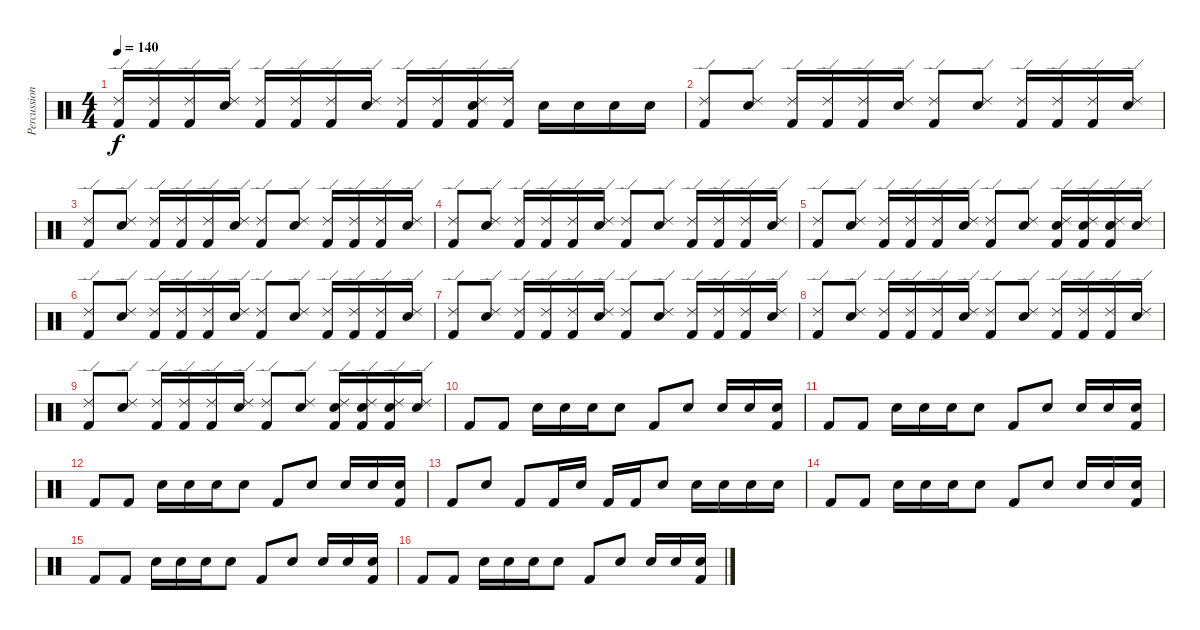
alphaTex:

\track ("Percussion" "Percussion") {instrument percussion}
\staff {score}
\articulation defaults
\ts (4 4)
\tempo 140
\clef neutral
\ks c
("Kick (hit) 2" "Ride (edge) 2").16{dy f} ("Kick (hit) 2" "Ride (edge) 2").16 ("Kick (hit) 2" "Ride (edge) 2").16 ("Electric Snare (hit)" "Ride (edge) 2").16 ("Kick (hit) 2" "Ride (edge) 2").16 ("Kick (hit) 2" "Ride (edge) 2").16 ("Kick (hit) 2" "Ride (edge) 2").16 ("Electric Snare (hit)" "Ride (edge) 2").16 ("Kick (hit) 2" "Ride (edge) 2").16 ("Kick (hit) 2" "Ride (edge) 2").16 ("Kick (hit) 2" "Electric Snare (hit)" "Ride (edge) 2").16 ("Kick (hit) 2" "Ride (edge) 2").16 "Electric Snare (hit)".16 "Electric Snare (hit)".16 "Electric Snare (hit)".16 "Electric Snare (hit)".16 |
("Kick (hit) 2" "Ride (edge) 2").8 ("Electric Snare (hit)" "Ride (edge) 2").8 ("Kick (hit) 2" "Ride (edge) 2").16 ("Kick (hit) 2" "Ride (edge) 2").16 ("Kick (hit) 2" "Ride (edge) 2").16 ("Electric Snare (hit)" "Ride (edge) 2").16 ("Kick (hit) 2" "Ride (edge) 2").8 ("Electric Snare (hit)" "Ride (edge) 2").8 ("Kick (hit) 2" "Ride (edge) 2").16 ("Kick (hit) 2" "Ride (edge) 2").16 ("Kick (hit) 2" "Ride (edge) 2").16 ("Electric Snare (hit)" "Ride (edge) 2").16 |
("Kick (hit) 2" "Ride (edge) 2").8 ("Electric Snare (hit)" "Ride (edge) 2").8 ("Kick (hit) 2" "Ride (edge) 2").16 ("Kick (hit) 2" "Ride (edge) 2").16 ("Kick (hit) 2" "Ride (edge) 2").16 ("Electric Snare (hit)" "Ride (edge) 2").16 ("Kick (hit) 2" "Ride (edge) 2").8 ("Electric Snare (hit)" "Ride (edge) 2").8 ("Kick (hit) 2" "Ride (edge) 2").16 ("Kick (hit) 2" "Ride (edge) 2").16 ("Kick (hit) 2" "Ride (edge) 2").16 ("Electric Snare (hit)" "Ride (edge) 2").16 |
("Kick (hit) 2" "Ride (edge) 2").8 ("Electric Snare (hit)" "Ride (edge) 2").8 ("Kick (hit) 2" "Ride (edge) 2").16 ("Kick (hit) 2" "Ride (edge) 2").16 ("Kick (hit) 2" "Ride (edge) 2").16 ("Electric Snare (hit)" "Ride (edge) 2").16 ("Kick (hit) 2" "Ride (edge) 2").8 ("Electric Snare (hit)" "Ride (edge) 2").8 ("Kick (hit) 2" "Ride (edge) 2").16 ("Kick (hit) 2" "Ride (edge) 2").16 ("Kick (hit) 2" "Ride (edge) 2").16 ("Electric Snare (hit)" "Ride (edge) 2").16 |
("Kick (hit) 2" "Ride (edge) 2").8 ("Electric Snare (hit)" "Ride (edge) 2").8 ("Kick (hit) 2" "Ride (edge) 2").16 ("Kick (hit) 2" "Ride (edge) 2").16 ("Kick (hit) 2" "Ride (edge) 2").16 ("Electric Snare (hit)" "Ride (edge) 2").16 ("Kick (hit) 2" "Ride (edge) 2").8 ("Electric Snare (hit)" "Ride (edge) 2").8 ("Kick (hit) 2" "Electric Snare (hit)" "Ride (edge) 2").16 ("Kick (hit) 2" "Electric Snare (hit)" "Ride (edge) 2").16 ("Kick (hit) 2" "Electric Snare (hit)" "Ride (edge) 2").16 ("Electric Snare (hit)" "Ride (edge) 2").16 |
("Kick (hit) 2" "Ride (edge) 2").8 ("Electric Snare (hit)" "Ride (edge) 2").8 ("Kick (hit) 2" "Ride (edge) 2").16 ("Kick (hit) 2" "Ride (edge) 2").16 ("Kick (hit) 2" "Ride (edge) 2").16 ("Electric Snare (hit)" "Ride (edge) 2").16 ("Kick (hit) 2" "Ride (edge) 2").8 ("Electric Snare (hit)" "Ride (edge) 2").8 ("Kick (hit) 2" "Ride (edge) 2").16 ("Kick (hit) 2" "Ride (edge) 2").16 ("Kick (hit) 2" "Ride (edge) 2").16 ("Electric Snare (hit)" "Ride (edge) 2").16 |
("Kick (hit) 2" "Ride (edge) 2").8 ("Electric Snare (hit)" "Ride (edge) 2").8 ("Kick (hit) 2" "Ride (edge) 2").16 ("Kick (hit) 2" "Ride (edge) 2").16 ("Kick (hit) 2" "Ride (edge) 2").16 ("Electric Snare (hit)" "Ride (edge) 2").16 ("Kick (hit) 2" "Ride (edge) 2").8 ("Electric Snare (hit)" "Ride (edge) 2").8 ("Kick (hit) 2" "Ride (edge) 2").16 ("Kick (hit) 2" "Ride (edge) 2").16 ("Kick (hit) 2" "Ride (edge) 2").16 ("Electric Snare (hit)" "Ride (edge) 2").16 |
("Kick (hit) 2" "Ride (edge) 2").8 ("Electric Snare (hit)" "Ride (edge) 2").8 ("Kick (hit) 2" "Ride (edge) 2").16 ("Kick (hit) 2" "Ride (edge) 2").16 ("Kick (hit) 2" "Ride (edge) 2").16 ("Electric Snare (hit)" "Ride (edge) 2").16 ("Kick (hit) 2" "Ride (edge) 2").8 ("Electric Snare (hit)" "Ride (edge) 2").8 ("Kick (hit) 2" "Ride (edge) 2").16 ("Kick (hit) 2" "Ride (edge) 2").16 ("Kick (hit) 2" "Ride (edge) 2").16 ("Electric Snare (hit)" "Ride (edge) 2").16 |
("Kick (hit) 2" "Ride (edge) 2").8 ("Electric Snare (hit)" "Ride (edge) 2").8 ("Kick (hit) 2" "Ride (edge) 2").16 ("Kick (hit) 2" "Ride (edge) 2").16 ("Kick (hit) 2" "Ride (edge) 2").16 ("Electric Snare (hit)" "Ride (edge) 2").16 ("Kick (hit) 2" "Ride (edge) 2").8 ("Electric Snare (hit)" "Ride (edge) 2").8 ("Kick (hit) 2" "Electric Snare (hit)" "Ride (edge) 2").16 ("Kick (hit) 2" "Electric Snare (hit)" "Ride (edge) 2").16 ("Kick (hit) 2" "Electric Snare (hit)" "Ride (edge) 2").16 ("Electric Snare (hit)" "Ride (edge) 2").16 |
"Kick (hit) 2".8 "Kick (hit) 2".8 "Electric Snare (hit)".16 "Electric Snare (hit)".16 "Electric Snare (hit)".16 "Electric Snare (hit)".8 "Kick (hit) 2".8 "Electric Snare (hit)".8 "Electric Snare (hit)".16 "Electric Snare (hit)".16 ("Kick (hit) 2" "Electric Snare (hit)").16 |
"Kick (hit) 2".8 "Kick (hit) 2".8 "Electric Snare (hit)".16 "Electric Snare (hit)".16 "Electric Snare (hit)".16 "Electric Snare (hit)".8 "Kick (hit) 2".8 "Electric Snare (hit)".8 "Electric Snare (hit)".16 "Electric Snare (hit)".16 ("Kick (hit) 2" "Electric Snare (hit)").16 |
"Kick (hit) 2".8 "Kick (hit) 2".8 "Electric Snare (hit)".16 "Electric Snare (hit)".16 "Electric Snare (hit)".16 "Electric Snare (hit)".8 "Kick (hit) 2".8 "Electric Snare (hit)".8 "Electric Snare (hit)".16 "Electric Snare (hit)".16 ("Kick (hit) 2" "Electric Snare (hit)").16 |
"Kick (hit) 2".8 "Electric Snare (hit)".8 "Kick (hit) 2".8 "Kick (hit) 2".16 "Electric Snare (hit)".16 "Kick (hit) 2".16 "Kick (hit) 2".16 "Electric Snare (hit)".8 "Electric Snare (hit)".16 "Electric Snare (hit)".16 "Electric Snare (hit)".16 "Electric Snare (hit)".16 |
"Kick (hit) 2".8 "Kick (hit) 2".8 "Electric Snare (hit)".16 "Electric Snare (hit)".16 "Electric Snare (hit)".16 "Electric Snare (hit)".8 "Kick (hit) 2".8 "Electric Snare (hit)".8 "Electric Snare (hit)".16 "Electric Snare (hit)".16 ("Kick (hit) 2" "Electric Snare (hit)").16 |
"Kick (hit) 2".8 "Kick (hit) 2".8 "Electric Snare (hit)".16 "Electric Snare (hit)".16 "Electric Snare (hit)".16 "Electric Snare (hit)".8 "Kick (hit) 2".8 "Electric Snare (hit)".8 "Electric Snare (hit)".16 "Electric Snare (hit)".16 ("Kick (hit) 2" "Electric Snare (hit)").16 |
"Kick (hit) 2".8 "Kick (hit) 2".8 "Electric Snare (hit)".16 "Electric Snare (hit)".16 "Electric Snare (hit)".16 "Electric Snare (hit)".8 "Kick (hit) 2".8 "Electric Snare (hit)".8 "Electric Snare (hit)".16 "Electric Snare (hit)".16 ("Kick (hit) 2" "Electric Snare (hit)").16
